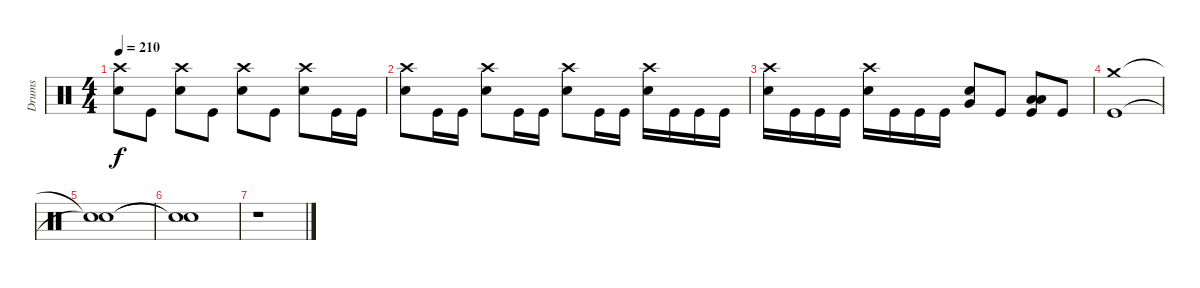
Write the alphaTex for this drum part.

\track ("Drums" "Drums") {instrument percussion}
\staff {score}
\articulation defaults
\ts (4 4)
\tempo 210
\clef neutral
\ks c
("Crash high (hit)" "Snare (hit) 2").8{dy f} "Kick (hit)".8 ("Crash high (hit)" "Snare (hit) 2").8 "Kick (hit)".8 ("Crash high (hit)" "Snare (hit) 2").8 "Kick (hit)".8 ("Crash high (hit)" "Snare (hit) 2").8 "Kick (hit)".16 "Kick (hit)".16 |
("Crash high (hit)" "Snare (hit) 2").8 "Kick (hit)".16 "Kick (hit)".16 ("Crash high (hit)" "Snare (hit) 2").8 "Kick (hit)".16 "Kick (hit)".16 ("Crash high (hit)" "Snare (hit) 2").8 "Kick (hit)".16 "Kick (hit)".16 ("Crash high (hit)" "Snare (hit) 2").16 "Kick (hit)".16 "Kick (hit)".16 "Kick (hit)".16 |
("Crash high (hit)" "Snare (hit) 2").16 "Kick (hit)".16 "Kick (hit)".16 "Kick (hit)".16 ("Crash high (hit)" "Snare (hit) 2").16 "Kick (hit)".16 "Kick (hit)".16 "Kick (hit)".16 ("Very Low Tom (hit)" "Snare (hit) 2").8 "Kick (hit)".8 ("Low Floor Tom (hit)" "Low Tom (hit)" "Kick (hit)").8 "Kick (hit)".8 |
("Crash medium (hit)" "Kick (hit)").1 |
("Snare (hit)"{t} "Snare (hit)"{t}).1 |
("Snare (hit)"{t} "Snare (hit)"{t}).1 |
r.1
